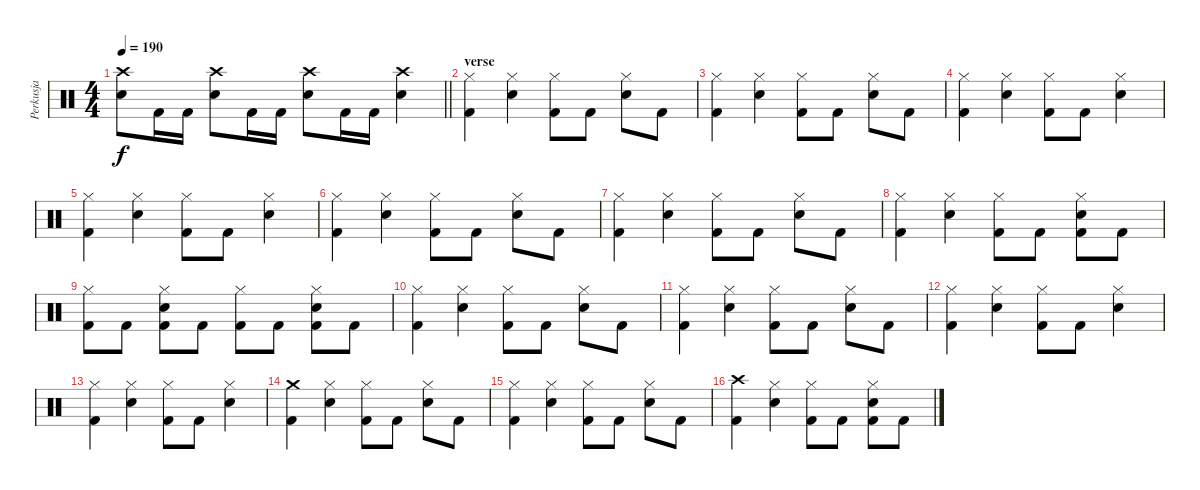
\track ("Perkusja" "Perkusja") {instrument percussion}
\staff {score}
\articulation defaults
\ts (4 4)
\tempo 190
\clef neutral
\barLineRight lightlight
\ks c
("Crash high (hit)" "Snare (hit) 2").8{dy f} "Kick (hit) 2".16 "Kick (hit) 2".16 ("Crash high (hit)" "Snare (hit) 2").8 "Kick (hit) 2".16 "Kick (hit) 2".16 ("Crash high (hit)" "Snare (hit) 2").8 "Kick (hit) 2".16 "Kick (hit) 2".16 ("Crash high (hit)" "Snare (hit) 2").4 |
\section ("" "verse")
("Kick (hit) 2" "Hi-Hat (closed)").4 ("Snare (hit) 2" "Hi-Hat (closed)").4 ("Kick (hit) 2" "Hi-Hat (closed)").8 "Kick (hit) 2".8 ("Snare (hit) 2" "Hi-Hat (closed)").8 "Kick (hit) 2".8 |
("Kick (hit) 2" "Hi-Hat (closed)").4 ("Snare (hit) 2" "Hi-Hat (closed)").4 ("Kick (hit) 2" "Hi-Hat (closed)").8 "Kick (hit) 2".8 ("Snare (hit) 2" "Hi-Hat (closed)").8 "Kick (hit) 2".8 |
("Kick (hit) 2" "Hi-Hat (closed)").4 ("Snare (hit) 2" "Hi-Hat (closed)").4 ("Kick (hit) 2" "Hi-Hat (closed)").8 "Kick (hit) 2".8 ("Snare (hit) 2" "Hi-Hat (closed)").4 |
("Kick (hit) 2" "Hi-Hat (closed)").4 ("Snare (hit) 2" "Hi-Hat (closed)").4 ("Kick (hit) 2" "Hi-Hat (closed)").8 "Kick (hit) 2".8 ("Snare (hit) 2" "Hi-Hat (closed)").4 |
("Kick (hit) 2" "Hi-Hat (closed)").4 ("Snare (hit) 2" "Hi-Hat (closed)").4 ("Kick (hit) 2" "Hi-Hat (closed)").8 "Kick (hit) 2".8 ("Snare (hit) 2" "Hi-Hat (closed)").8 "Kick (hit) 2".8 |
("Kick (hit) 2" "Hi-Hat (closed)").4 ("Snare (hit) 2" "Hi-Hat (closed)").4 ("Kick (hit) 2" "Hi-Hat (closed)").8 "Kick (hit) 2".8 ("Snare (hit) 2" "Hi-Hat (closed)").8 "Kick (hit) 2".8 |
("Kick (hit) 2" "Hi-Hat (closed)").4 ("Snare (hit) 2" "Hi-Hat (closed)").4 ("Kick (hit) 2" "Hi-Hat (closed)").8 "Kick (hit) 2".8 ("Kick (hit) 2" "Snare (hit) 2" "Hi-Hat (closed)").8 "Kick (hit) 2".8 |
("Kick (hit) 2" "Hi-Hat (closed)").8 "Kick (hit) 2".8 ("Kick (hit) 2" "Snare (hit) 2" "Hi-Hat (closed)").8 "Kick (hit) 2".8 ("Kick (hit) 2" "Hi-Hat (closed)").8 "Kick (hit) 2".8 ("Kick (hit) 2" "Snare (hit) 2" "Hi-Hat (closed)").8 "Kick (hit) 2".8 |
("Kick (hit) 2" "Hi-Hat (closed)").4 ("Snare (hit) 2" "Hi-Hat (closed)").4 ("Kick (hit) 2" "Hi-Hat (closed)").8 "Kick (hit) 2".8 ("Snare (hit) 2" "Hi-Hat (closed)").8 "Kick (hit) 2".8 |
("Kick (hit) 2" "Hi-Hat (closed)").4 ("Snare (hit) 2" "Hi-Hat (closed)").4 ("Kick (hit) 2" "Hi-Hat (closed)").8 "Kick (hit) 2".8 ("Snare (hit) 2" "Hi-Hat (closed)").8 "Kick (hit) 2".8 |
("Kick (hit) 2" "Hi-Hat (closed)").4 ("Snare (hit) 2" "Hi-Hat (closed)").4 ("Kick (hit) 2" "Hi-Hat (closed)").8 "Kick (hit) 2".8 ("Snare (hit) 2" "Hi-Hat (closed)").4 |
("Kick (hit) 2" "Hi-Hat (closed)").4 ("Snare (hit) 2" "Hi-Hat (closed)").4 ("Kick (hit) 2" "Hi-Hat (closed)").8 "Kick (hit) 2".8 ("Snare (hit) 2" "Hi-Hat (closed)").4 |
("Kick (hit) 2" "Crash medium (hit)").4 ("Snare (hit) 2" "Hi-Hat (closed)").4 ("Kick (hit) 2" "Hi-Hat (closed)").8 "Kick (hit) 2".8 ("Snare (hit) 2" "Hi-Hat (closed)").8 "Kick (hit) 2".8 |
("Kick (hit) 2" "Hi-Hat (closed)").4 ("Snare (hit) 2" "Hi-Hat (closed)").4 ("Kick (hit) 2" "Hi-Hat (closed)").8 "Kick (hit) 2".8 ("Snare (hit) 2" "Hi-Hat (closed)").8 "Kick (hit) 2".8 |
("Kick (hit) 2" "Crash high (hit)").4 ("Snare (hit) 2" "Hi-Hat (closed)").4 ("Kick (hit) 2" "Hi-Hat (closed)").8 "Kick (hit) 2".8 ("Kick (hit) 2" "Snare (hit) 2" "Hi-Hat (closed)").8 "Kick (hit) 2".8
